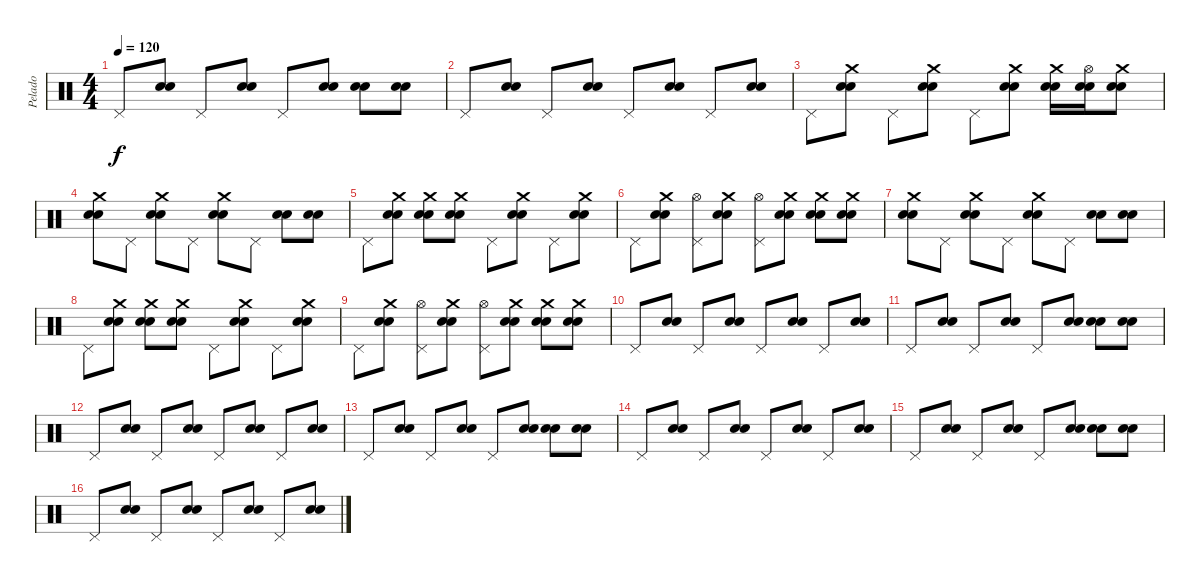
\track ("Pelado" "Pelado") {instrument percussion}
\staff {score}
\articulation defaults
\ts (4 4)
\tempo 120
\clef neutral
\ks c "Pedal Hi-Hat (hit)".8{dy f}
("Electric Snare (hit)" "Electric Snare (hit)").8 "Pedal Hi-Hat (hit)".8 ("Electric Snare (hit)" "Electric Snare (hit)").8 "Pedal Hi-Hat (hit)".8 ("Electric Snare (hit)" "Electric Snare (hit)").8 ("Electric Snare (hit)" "Electric Snare (hit)").8 ("Electric Snare (hit)" "Electric Snare (hit)").8 |
"Pedal Hi-Hat (hit)".8 ("Electric Snare (hit)" "Electric Snare (hit)").8 "Pedal Hi-Hat (hit)".8 ("Electric Snare (hit)" "Electric Snare (hit)").8 "Pedal Hi-Hat (hit)".8 ("Electric Snare (hit)" "Electric Snare (hit)").8 "Pedal Hi-Hat (hit)".8 ("Electric Snare (hit)" "Electric Snare (hit)").8 |
"Pedal Hi-Hat (hit)".8 ("Crash medium (hit)" "Electric Snare (hit)" "Electric Snare (hit)").8 "Pedal Hi-Hat (hit)".8 ("Crash medium (hit)" "Electric Snare (hit)" "Electric Snare (hit)").8 "Pedal Hi-Hat (hit)".8 ("Crash medium (hit)" "Electric Snare (hit)" "Electric Snare (hit)").8 ("Crash medium (hit)" "Electric Snare (hit)" "Electric Snare (hit)").16 ("Hi-Hat (open)" "Electric Snare (hit)" "Electric Snare (hit)").16 ("Crash medium (hit)" "Electric Snare (hit)" "Electric Snare (hit)").8 |
("Crash medium (hit)" "Electric Snare (hit)" "Electric Snare (hit)").8 "Pedal Hi-Hat (hit)".8 ("Crash medium (hit)" "Electric Snare (hit)" "Electric Snare (hit)").8 "Pedal Hi-Hat (hit)".8 ("Crash medium (hit)" "Electric Snare (hit)" "Electric Snare (hit)").8 "Pedal Hi-Hat (hit)".8 ("Electric Snare (hit)" "Electric Snare (hit)").8 ("Electric Snare (hit)" "Electric Snare (hit)").8 |
"Pedal Hi-Hat (hit)".8 ("Crash medium (hit)" "Electric Snare (hit)" "Electric Snare (hit)").8 ("Crash medium (hit)" "Electric Snare (hit)" "Electric Snare (hit)").8 ("Crash medium (hit)" "Electric Snare (hit)" "Electric Snare (hit)").8 "Pedal Hi-Hat (hit)".8 ("Crash medium (hit)" "Electric Snare (hit)" "Electric Snare (hit)").8 "Pedal Hi-Hat (hit)".8 ("Crash medium (hit)" "Electric Snare (hit)" "Electric Snare (hit)").8 |
"Pedal Hi-Hat (hit)".8 ("Crash medium (hit)" "Electric Snare (hit)" "Electric Snare (hit)").8 ("Hi-Hat (open)" "Pedal Hi-Hat (hit)").8 ("Crash medium (hit)" "Electric Snare (hit)" "Electric Snare (hit)").8 ("Hi-Hat (open)" "Pedal Hi-Hat (hit)").8 ("Crash medium (hit)" "Electric Snare (hit)" "Electric Snare (hit)").8 ("Crash medium (hit)" "Electric Snare (hit)" "Electric Snare (hit)").8 ("Crash medium (hit)" "Electric Snare (hit)" "Electric Snare (hit)").8 |
("Crash medium (hit)" "Electric Snare (hit)" "Electric Snare (hit)").8 "Pedal Hi-Hat (hit)".8 ("Crash medium (hit)" "Electric Snare (hit)" "Electric Snare (hit)").8 "Pedal Hi-Hat (hit)".8 ("Crash medium (hit)" "Electric Snare (hit)" "Electric Snare (hit)").8 "Pedal Hi-Hat (hit)".8 ("Electric Snare (hit)" "Electric Snare (hit)").8 ("Electric Snare (hit)" "Electric Snare (hit)").8 |
"Pedal Hi-Hat (hit)".8 ("Crash medium (hit)" "Electric Snare (hit)" "Electric Snare (hit)").8 ("Crash medium (hit)" "Electric Snare (hit)" "Electric Snare (hit)").8 ("Crash medium (hit)" "Electric Snare (hit)" "Electric Snare (hit)").8 "Pedal Hi-Hat (hit)".8 ("Crash medium (hit)" "Electric Snare (hit)" "Electric Snare (hit)").8 "Pedal Hi-Hat (hit)".8 ("Crash medium (hit)" "Electric Snare (hit)" "Electric Snare (hit)").8 |
"Pedal Hi-Hat (hit)".8 ("Crash medium (hit)" "Electric Snare (hit)" "Electric Snare (hit)").8 ("Hi-Hat (open)" "Pedal Hi-Hat (hit)").8 ("Crash medium (hit)" "Electric Snare (hit)" "Electric Snare (hit)").8 ("Hi-Hat (open)" "Pedal Hi-Hat (hit)").8 ("Crash medium (hit)" "Electric Snare (hit)" "Electric Snare (hit)").8 ("Crash medium (hit)" "Electric Snare (hit)" "Electric Snare (hit)").8 ("Crash medium (hit)" "Electric Snare (hit)" "Electric Snare (hit)").8 |
"Pedal Hi-Hat (hit)".8 ("Electric Snare (hit)" "Electric Snare (hit)").8 "Pedal Hi-Hat (hit)".8 ("Electric Snare (hit)" "Electric Snare (hit)").8 "Pedal Hi-Hat (hit)".8 ("Electric Snare (hit)" "Electric Snare (hit)").8 "Pedal Hi-Hat (hit)".8 ("Electric Snare (hit)" "Electric Snare (hit)").8 |
"Pedal Hi-Hat (hit)".8 ("Electric Snare (hit)" "Electric Snare (hit)").8 "Pedal Hi-Hat (hit)".8 ("Electric Snare (hit)" "Electric Snare (hit)").8 "Pedal Hi-Hat (hit)".8 ("Electric Snare (hit)" "Electric Snare (hit)").8 ("Electric Snare (hit)" "Electric Snare (hit)").8 ("Electric Snare (hit)" "Electric Snare (hit)").8 |
"Pedal Hi-Hat (hit)".8 ("Electric Snare (hit)" "Electric Snare (hit)").8 "Pedal Hi-Hat (hit)".8 ("Electric Snare (hit)" "Electric Snare (hit)").8 "Pedal Hi-Hat (hit)".8 ("Electric Snare (hit)" "Electric Snare (hit)").8 "Pedal Hi-Hat (hit)".8 ("Electric Snare (hit)" "Electric Snare (hit)").8 |
"Pedal Hi-Hat (hit)".8 ("Electric Snare (hit)" "Electric Snare (hit)").8 "Pedal Hi-Hat (hit)".8 ("Electric Snare (hit)" "Electric Snare (hit)").8 "Pedal Hi-Hat (hit)".8 ("Electric Snare (hit)" "Electric Snare (hit)").8 ("Electric Snare (hit)" "Electric Snare (hit)").8 ("Electric Snare (hit)" "Electric Snare (hit)").8 |
"Pedal Hi-Hat (hit)".8 ("Electric Snare (hit)" "Electric Snare (hit)").8 "Pedal Hi-Hat (hit)".8 ("Electric Snare (hit)" "Electric Snare (hit)").8 "Pedal Hi-Hat (hit)".8 ("Electric Snare (hit)" "Electric Snare (hit)").8 "Pedal Hi-Hat (hit)".8 ("Electric Snare (hit)" "Electric Snare (hit)").8 |
"Pedal Hi-Hat (hit)".8 ("Electric Snare (hit)" "Electric Snare (hit)").8 "Pedal Hi-Hat (hit)".8 ("Electric Snare (hit)" "Electric Snare (hit)").8 "Pedal Hi-Hat (hit)".8 ("Electric Snare (hit)" "Electric Snare (hit)").8 ("Electric Snare (hit)" "Electric Snare (hit)").8 ("Electric Snare (hit)" "Electric Snare (hit)").8 |
"Pedal Hi-Hat (hit)".8 ("Electric Snare (hit)" "Electric Snare (hit)").8 "Pedal Hi-Hat (hit)".8 ("Electric Snare (hit)" "Electric Snare (hit)").8 "Pedal Hi-Hat (hit)".8 ("Electric Snare (hit)" "Electric Snare (hit)").8 "Pedal Hi-Hat (hit)".8 ("Electric Snare (hit)" "Electric Snare (hit)").8
